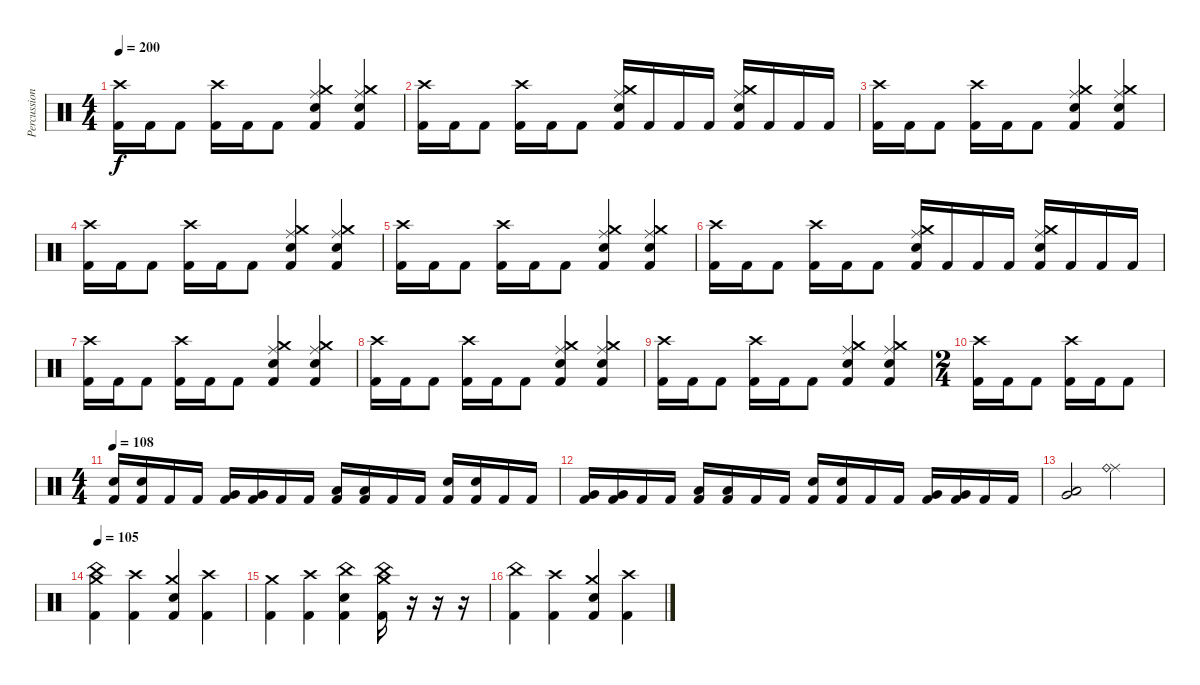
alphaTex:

\track ("Percussions" "Percussion") {instrument percussion}
\staff {score}
\articulation defaults
\ts (4 4)
\tempo 200
\clef neutral
\ks c
("Crash high (hit)" "Kick (hit) 2").16{dy f} "Kick (hit) 2".16 "Kick (hit) 2".8 ("Crash high (hit)" "Kick (hit) 2").16 "Kick (hit) 2".16 "Kick (hit) 2".8 ("Crash medium (hit)" "Ride (middle)" "Electric Snare (hit)" "Kick (hit) 2").4 ("Crash medium (hit)" "Ride (middle)" "Electric Snare (hit)" "Kick (hit) 2").4 |
("Crash high (hit)" "Kick (hit) 2").16 "Kick (hit) 2".16 "Kick (hit) 2".8 ("Crash high (hit)" "Kick (hit) 2").16 "Kick (hit) 2".16 "Kick (hit) 2".8 ("Crash medium (hit)" "Ride (middle)" "Electric Snare (hit)" "Kick (hit) 2").16 "Kick (hit) 2".16 "Kick (hit) 2".16 "Kick (hit) 2".16 ("Ride (middle)" "Crash medium (hit)" "Electric Snare (hit)" "Kick (hit) 2").16 "Kick (hit) 2".16 "Kick (hit) 2".16 "Kick (hit) 2".16 |
("Crash high (hit)" "Kick (hit) 2").16 "Kick (hit) 2".16 "Kick (hit) 2".8 ("Crash high (hit)" "Kick (hit) 2").16 "Kick (hit) 2".16 "Kick (hit) 2".8 ("Crash medium (hit)" "Ride (middle)" "Electric Snare (hit)" "Kick (hit) 2").4 ("Crash medium (hit)" "Ride (middle)" "Electric Snare (hit)" "Kick (hit) 2").4 |
("Crash high (hit)" "Kick (hit) 2").16 "Kick (hit) 2".16 "Kick (hit) 2".8 ("Crash high (hit)" "Kick (hit) 2").16 "Kick (hit) 2".16 "Kick (hit) 2".8 ("Crash medium (hit)" "Ride (middle)" "Electric Snare (hit)" "Kick (hit) 2").4 ("Crash medium (hit)" "Ride (middle)" "Electric Snare (hit)" "Kick (hit) 2").4 |
("Crash high (hit)" "Kick (hit) 2").16 "Kick (hit) 2".16 "Kick (hit) 2".8 ("Crash high (hit)" "Kick (hit) 2").16 "Kick (hit) 2".16 "Kick (hit) 2".8 ("Crash medium (hit)" "Ride (middle)" "Electric Snare (hit)" "Kick (hit) 2").4 ("Crash medium (hit)" "Ride (middle)" "Electric Snare (hit)" "Kick (hit) 2").4 |
("Crash high (hit)" "Kick (hit) 2").16 "Kick (hit) 2".16 "Kick (hit) 2".8 ("Crash high (hit)" "Kick (hit) 2").16 "Kick (hit) 2".16 "Kick (hit) 2".8 ("Crash medium (hit)" "Ride (middle)" "Electric Snare (hit)" "Kick (hit) 2").16 "Kick (hit) 2".16 "Kick (hit) 2".16 "Kick (hit) 2".16 ("Ride (middle)" "Crash medium (hit)" "Electric Snare (hit)" "Kick (hit) 2").16 "Kick (hit) 2".16 "Kick (hit) 2".16 "Kick (hit) 2".16 |
("Crash high (hit)" "Kick (hit) 2").16 "Kick (hit) 2".16 "Kick (hit) 2".8 ("Crash high (hit)" "Kick (hit) 2").16 "Kick (hit) 2".16 "Kick (hit) 2".8 ("Crash medium (hit)" "Ride (middle)" "Electric Snare (hit)" "Kick (hit) 2").4 ("Crash medium (hit)" "Ride (middle)" "Electric Snare (hit)" "Kick (hit) 2").4 |
("Crash high (hit)" "Kick (hit) 2").16 "Kick (hit) 2".16 "Kick (hit) 2".8 ("Crash high (hit)" "Kick (hit) 2").16 "Kick (hit) 2".16 "Kick (hit) 2".8 ("Crash medium (hit)" "Ride (middle)" "Electric Snare (hit)" "Kick (hit) 2").4 ("Crash medium (hit)" "Ride (middle)" "Electric Snare (hit)" "Kick (hit) 2").4 |
("Crash high (hit)" "Kick (hit) 2").16 "Kick (hit) 2".16 "Kick (hit) 2".8 ("Crash high (hit)" "Kick (hit) 2").16 "Kick (hit) 2".16 "Kick (hit) 2".8 ("Crash medium (hit)" "Ride (middle)" "Electric Snare (hit)" "Kick (hit) 2").4 ("Crash medium (hit)" "Ride (middle)" "Electric Snare (hit)" "Kick (hit) 2").4 |
\ts (2 4)
("Crash high (hit)" "Kick (hit) 2").16 "Kick (hit) 2".16 "Kick (hit) 2".8 ("Crash high (hit)" "Kick (hit) 2").16 "Kick (hit) 2".16 "Kick (hit) 2".8 |
\ts (4 4)
\tempo 108
("Electric Snare (hit)" "Kick (hit) 2").16 ("Electric Snare (hit)" "Kick (hit) 2").16 "Kick (hit) 2".16 "Kick (hit) 2".16 ("Very Low Tom (hit)" "Kick (hit) 2").16 ("Very Low Tom (hit)" "Kick (hit) 2").16 "Kick (hit) 2".16 "Kick (hit) 2".16 ("Low Floor Tom (hit)" "Kick (hit) 2").16 ("Low Floor Tom (hit)" "Kick (hit) 2").16 "Kick (hit) 2".16 "Kick (hit) 2".16 ("Electric Snare (hit)" "Kick (hit) 2").16 ("Electric Snare (hit)" "Kick (hit) 2").16 "Kick (hit) 2".16 "Kick (hit) 2".16 |
("Very Low Tom (hit)" "Kick (hit) 2").16 ("Very Low Tom (hit)" "Kick (hit) 2").16 "Kick (hit) 2".16 "Kick (hit) 2".16 ("Low Floor Tom (hit)" "Kick (hit) 2").16 ("Low Floor Tom (hit)" "Kick (hit) 2").16 "Kick (hit) 2".16 "Kick (hit) 2".16 ("Electric Snare (hit)" "Kick (hit) 2").16 ("Electric Snare (hit)" "Kick (hit) 2").16 "Kick (hit) 2".16 "Kick (hit) 2".16 ("Very Low Tom (hit)" "Kick (hit) 2").16 ("Very Low Tom (hit)" "Kick (hit) 2").16 "Kick (hit) 2".16 "Kick (hit) 2".16 |
("Very Low Tom (hit)" "Low Floor Tom (hit)").2 ("Ride (middle)" "Ride (bell)").2 |
\tempo 105
("China (hit)" "Crash medium (hit)" "Kick (hit) 2").4 ("Crash high (hit)" "Kick (hit) 2").4 ("Crash medium (hit)" "Electric Snare (hit)" "Kick (hit) 2").4 ("Crash high (hit)" "Kick (hit) 2").4 |
("Crash medium (hit)" "Kick (hit) 2").4 ("Crash high (hit)" "Kick (hit) 2").4 ("China (hit)" "Electric Snare (hit)" "Kick (hit) 2").4 ("China (hit)" "Crash medium (hit)" "Kick (hit) 2").16 r.16 r.16 r.16 |
("China (hit)" "Kick (hit) 2").4 ("Crash high (hit)" "Kick (hit) 2").4 ("Crash medium (hit)" "Electric Snare (hit)" "Kick (hit) 2").4 ("Crash high (hit)" "Kick (hit) 2").4
